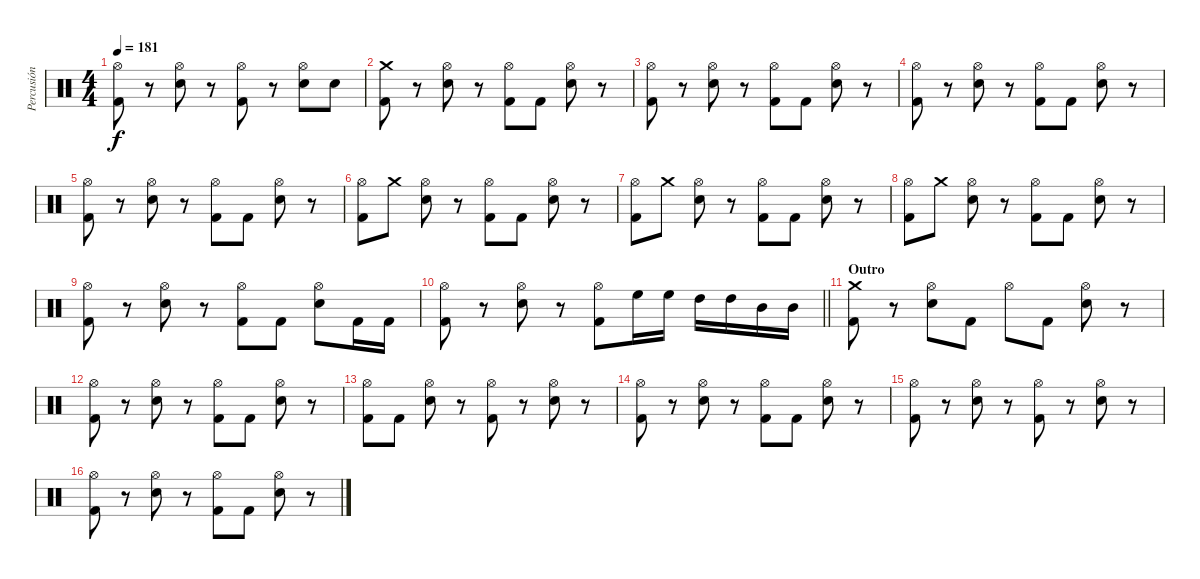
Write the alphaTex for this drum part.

\track ("Percusión" "Percusión") {instrument percussion}
\staff {score}
\articulation defaults
\ts (4 4)
\tempo 181
\clef neutral
\ks c
("Hi-Hat (open)" "Kick (hit) 2").8{dy f} r.8 ("Hi-Hat (open)" "Electric Snare (hit)").8 r.8 ("Hi-Hat (open)" "Kick (hit) 2").8 r.8 ("Hi-Hat (open)" "Electric Snare (hit)").8 "Electric Snare (hit)".8 |
("Crash medium (hit)" "Kick (hit) 2").8 r.8 ("Hi-Hat (open)" "Electric Snare (hit)").8 r.8 ("Hi-Hat (open)" "Kick (hit) 2").8 "Kick (hit) 2".8 ("Hi-Hat (open)" "Electric Snare (hit)").8 r.8 |
("Hi-Hat (open)" "Kick (hit) 2").8 r.8 ("Hi-Hat (open)" "Electric Snare (hit)").8 r.8 ("Hi-Hat (open)" "Kick (hit) 2").8 "Kick (hit) 2".8 ("Hi-Hat (open)" "Electric Snare (hit)").8 r.8 |
("Hi-Hat (open)" "Kick (hit) 2").8 r.8 ("Hi-Hat (open)" "Electric Snare (hit)").8 r.8 ("Hi-Hat (open)" "Kick (hit) 2").8 "Kick (hit) 2".8 ("Hi-Hat (open)" "Electric Snare (hit)").8 r.8 |
("Hi-Hat (open)" "Kick (hit) 2").8 r.8 ("Hi-Hat (open)" "Electric Snare (hit)").8 r.8 ("Hi-Hat (open)" "Kick (hit) 2").8 "Kick (hit) 2".8 ("Hi-Hat (open)" "Electric Snare (hit)").8 r.8 |
("Hi-Hat (open)" "Kick (hit) 2").8 "Crash medium (hit)".8 ("Hi-Hat (open)" "Electric Snare (hit)").8 r.8 ("Hi-Hat (open)" "Kick (hit) 2").8 "Kick (hit) 2".8 ("Hi-Hat (open)" "Electric Snare (hit)").8 r.8 |
("Hi-Hat (open)" "Kick (hit) 2").8 "Crash medium (hit)".8 ("Hi-Hat (open)" "Electric Snare (hit)").8 r.8 ("Hi-Hat (open)" "Kick (hit) 2").8 "Kick (hit) 2".8 ("Hi-Hat (open)" "Electric Snare (hit)").8 r.8 |
("Hi-Hat (open)" "Kick (hit) 2").8 "Crash medium (hit)".8 ("Hi-Hat (open)" "Electric Snare (hit)").8 r.8 ("Hi-Hat (open)" "Kick (hit) 2").8 "Kick (hit) 2".8 ("Hi-Hat (open)" "Electric Snare (hit)").8 r.8 |
("Hi-Hat (open)" "Kick (hit) 2").8 r.8 ("Hi-Hat (open)" "Electric Snare (hit)").8 r.8 ("Hi-Hat (open)" "Kick (hit) 2").8 "Kick (hit) 2".8 ("Hi-Hat (open)" "Electric Snare (hit)").8 "Kick (hit) 2".16 "Kick (hit) 2".16 |
\barLineRight lightlight
("Hi-Hat (open)" "Kick (hit) 2").8 r.8 ("Hi-Hat (open)" "Electric Snare (hit)").8 r.8 ("Hi-Hat (open)" "Kick (hit) 2").8 "High Floor Tom (hit)".16 "High Floor Tom (hit)".16 "High Tom (hit)".16 "High Tom (hit)".16 "Mid Tom (hit)".16 "Mid Tom (hit)".16 |
\section ("" "Outro")
("Crash medium (hit)" "Kick (hit) 2").8 r.8 ("Hi-Hat (open)" "Electric Snare (hit)").8 "Kick (hit) 2".8 "Hi-Hat (open)".8 "Kick (hit) 2".8 ("Hi-Hat (open)" "Electric Snare (hit)").8 r.8 |
("Hi-Hat (open)" "Kick (hit) 2").8 r.8 ("Hi-Hat (open)" "Electric Snare (hit)").8 r.8 ("Hi-Hat (open)" "Kick (hit) 2").8 "Kick (hit) 2".8 ("Hi-Hat (open)" "Electric Snare (hit)").8 r.8 |
("Hi-Hat (open)" "Kick (hit) 2").8 "Kick (hit) 2".8 ("Hi-Hat (open)" "Electric Snare (hit)").8 r.8 ("Hi-Hat (open)" "Kick (hit) 2").8 r.8 ("Hi-Hat (open)" "Electric Snare (hit)").8 r.8 |
("Hi-Hat (open)" "Kick (hit) 2").8 r.8 ("Hi-Hat (open)" "Electric Snare (hit)").8 r.8 ("Hi-Hat (open)" "Kick (hit) 2").8 "Kick (hit) 2".8 ("Hi-Hat (open)" "Electric Snare (hit)").8 r.8 |
("Hi-Hat (open)" "Kick (hit) 2").8 r.8 ("Hi-Hat (open)" "Electric Snare (hit)").8 r.8 ("Hi-Hat (open)" "Kick (hit) 2").8 r.8 ("Hi-Hat (open)" "Electric Snare (hit)").8 r.8 |
("Hi-Hat (open)" "Kick (hit) 2").8 r.8 ("Hi-Hat (open)" "Electric Snare (hit)").8 r.8 ("Hi-Hat (open)" "Kick (hit) 2").8 "Kick (hit) 2".8 ("Hi-Hat (open)" "Electric Snare (hit)").8 r.8
